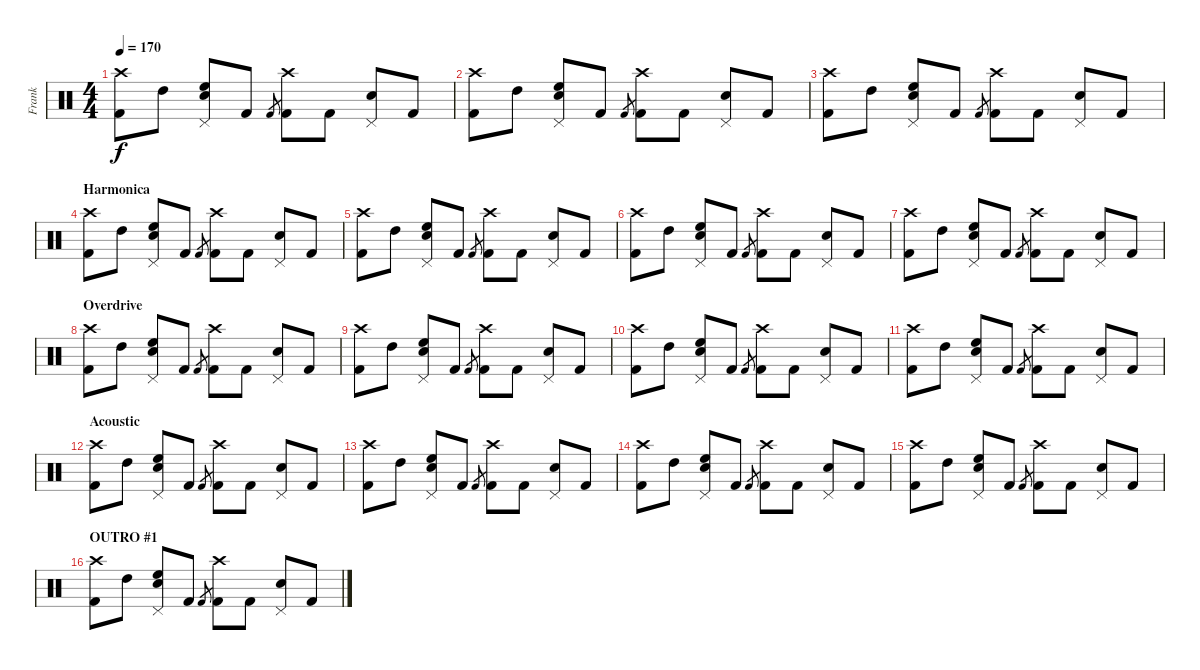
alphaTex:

\track ("Frank" "Frank") {instrument percussion}
\staff {score}
\articulation defaults
\ts (4 4)
\tempo 170
\clef neutral
\ks c
("Crash high (hit)" "Kick (hit) 2").8{dy f} "High Tom (hit)".8 ("Pedal Hi-Hat (hit)" "High Floor Tom (hit)" "Snare (hit) 2").8 "Kick (hit) 2".8 "Kick (hit) 2".8{gr} ("Crash high (hit)" "Kick (hit) 2").8 "Kick (hit) 2".8 ("Pedal Hi-Hat (hit)" "Snare (hit) 2").8 "Kick (hit) 2".8 |
("Crash high (hit)" "Kick (hit) 2").8 "High Tom (hit)".8 ("Pedal Hi-Hat (hit)" "High Floor Tom (hit)" "Snare (hit) 2").8 "Kick (hit) 2".8 "Kick (hit) 2".8{gr} ("Crash high (hit)" "Kick (hit) 2").8 "Kick (hit) 2".8 ("Pedal Hi-Hat (hit)" "Snare (hit) 2").8 "Kick (hit) 2".8 |
("Crash high (hit)" "Kick (hit) 2").8 "High Tom (hit)".8 ("Pedal Hi-Hat (hit)" "High Floor Tom (hit)" "Snare (hit) 2").8 "Kick (hit) 2".8 "Kick (hit) 2".8{gr} ("Crash high (hit)" "Kick (hit) 2").8 "Kick (hit) 2".8 ("Pedal Hi-Hat (hit)" "Snare (hit) 2").8 "Kick (hit) 2".8 |
\section ("" "Harmonica")
("Crash high (hit)" "Kick (hit) 2").8 "High Tom (hit)".8 ("Pedal Hi-Hat (hit)" "High Floor Tom (hit)" "Snare (hit) 2").8 "Kick (hit) 2".8 "Kick (hit) 2".8{gr} ("Crash high (hit)" "Kick (hit) 2").8 "Kick (hit) 2".8 ("Pedal Hi-Hat (hit)" "Snare (hit) 2").8 "Kick (hit) 2".8 |
("Crash high (hit)" "Kick (hit) 2").8 "High Tom (hit)".8 ("Pedal Hi-Hat (hit)" "High Floor Tom (hit)" "Snare (hit) 2").8 "Kick (hit) 2".8 "Kick (hit) 2".8{gr} ("Crash high (hit)" "Kick (hit) 2").8 "Kick (hit) 2".8 ("Pedal Hi-Hat (hit)" "Snare (hit) 2").8 "Kick (hit) 2".8 |
("Crash high (hit)" "Kick (hit) 2").8 "High Tom (hit)".8 ("Pedal Hi-Hat (hit)" "High Floor Tom (hit)" "Snare (hit) 2").8 "Kick (hit) 2".8 "Kick (hit) 2".8{gr} ("Crash high (hit)" "Kick (hit) 2").8 "Kick (hit) 2".8 ("Pedal Hi-Hat (hit)" "Snare (hit) 2").8 "Kick (hit) 2".8 |
("Crash high (hit)" "Kick (hit) 2").8 "High Tom (hit)".8 ("Pedal Hi-Hat (hit)" "High Floor Tom (hit)" "Snare (hit) 2").8 "Kick (hit) 2".8 "Kick (hit) 2".8{gr} ("Crash high (hit)" "Kick (hit) 2").8 "Kick (hit) 2".8 ("Pedal Hi-Hat (hit)" "Snare (hit) 2").8 "Kick (hit) 2".8 |
\section ("" "Overdrive")
("Crash high (hit)" "Kick (hit) 2").8 "High Tom (hit)".8 ("Pedal Hi-Hat (hit)" "High Floor Tom (hit)" "Snare (hit) 2").8 "Kick (hit) 2".8 "Kick (hit) 2".8{gr} ("Crash high (hit)" "Kick (hit) 2").8 "Kick (hit) 2".8 ("Pedal Hi-Hat (hit)" "Snare (hit) 2").8 "Kick (hit) 2".8 |
("Crash high (hit)" "Kick (hit) 2").8 "High Tom (hit)".8 ("Pedal Hi-Hat (hit)" "High Floor Tom (hit)" "Snare (hit) 2").8 "Kick (hit) 2".8 "Kick (hit) 2".8{gr} ("Crash high (hit)" "Kick (hit) 2").8 "Kick (hit) 2".8 ("Pedal Hi-Hat (hit)" "Snare (hit) 2").8 "Kick (hit) 2".8 |
("Crash high (hit)" "Kick (hit) 2").8 "High Tom (hit)".8 ("Pedal Hi-Hat (hit)" "High Floor Tom (hit)" "Snare (hit) 2").8 "Kick (hit) 2".8 "Kick (hit) 2".8{gr} ("Crash high (hit)" "Kick (hit) 2").8 "Kick (hit) 2".8 ("Pedal Hi-Hat (hit)" "Snare (hit) 2").8 "Kick (hit) 2".8 |
("Crash high (hit)" "Kick (hit) 2").8 "High Tom (hit)".8 ("Pedal Hi-Hat (hit)" "High Floor Tom (hit)" "Snare (hit) 2").8 "Kick (hit) 2".8 "Kick (hit) 2".8{gr} ("Crash high (hit)" "Kick (hit) 2").8 "Kick (hit) 2".8 ("Pedal Hi-Hat (hit)" "Snare (hit) 2").8 "Kick (hit) 2".8 |
\section ("" "Acoustic")
("Crash high (hit)" "Kick (hit) 2").8 "High Tom (hit)".8 ("Pedal Hi-Hat (hit)" "High Floor Tom (hit)" "Snare (hit) 2").8 "Kick (hit) 2".8 "Kick (hit) 2".8{gr} ("Crash high (hit)" "Kick (hit) 2").8 "Kick (hit) 2".8 ("Pedal Hi-Hat (hit)" "Snare (hit) 2").8 "Kick (hit) 2".8 |
("Crash high (hit)" "Kick (hit) 2").8 "High Tom (hit)".8 ("Pedal Hi-Hat (hit)" "High Floor Tom (hit)" "Snare (hit) 2").8 "Kick (hit) 2".8 "Kick (hit) 2".8{gr} ("Crash high (hit)" "Kick (hit) 2").8 "Kick (hit) 2".8 ("Pedal Hi-Hat (hit)" "Snare (hit) 2").8 "Kick (hit) 2".8 |
("Crash high (hit)" "Kick (hit) 2").8 "High Tom (hit)".8 ("Pedal Hi-Hat (hit)" "High Floor Tom (hit)" "Snare (hit) 2").8 "Kick (hit) 2".8 "Kick (hit) 2".8{gr} ("Crash high (hit)" "Kick (hit) 2").8 "Kick (hit) 2".8 ("Pedal Hi-Hat (hit)" "Snare (hit) 2").8 "Kick (hit) 2".8 |
("Crash high (hit)" "Kick (hit) 2").8 "High Tom (hit)".8 ("Pedal Hi-Hat (hit)" "High Floor Tom (hit)" "Snare (hit) 2").8 "Kick (hit) 2".8 "Kick (hit) 2".8{gr} ("Crash high (hit)" "Kick (hit) 2").8 "Kick (hit) 2".8 ("Pedal Hi-Hat (hit)" "Snare (hit) 2").8 "Kick (hit) 2".8 |
\section ("" "OUTRO #1")
("Crash high (hit)" "Kick (hit) 2").8 "High Tom (hit)".8 ("Pedal Hi-Hat (hit)" "High Floor Tom (hit)" "Snare (hit) 2").8 "Kick (hit) 2".8 "Kick (hit) 2".8{gr} ("Crash high (hit)" "Kick (hit) 2").8 "Kick (hit) 2".8 ("Pedal Hi-Hat (hit)" "Snare (hit) 2").8 "Kick (hit) 2".8
